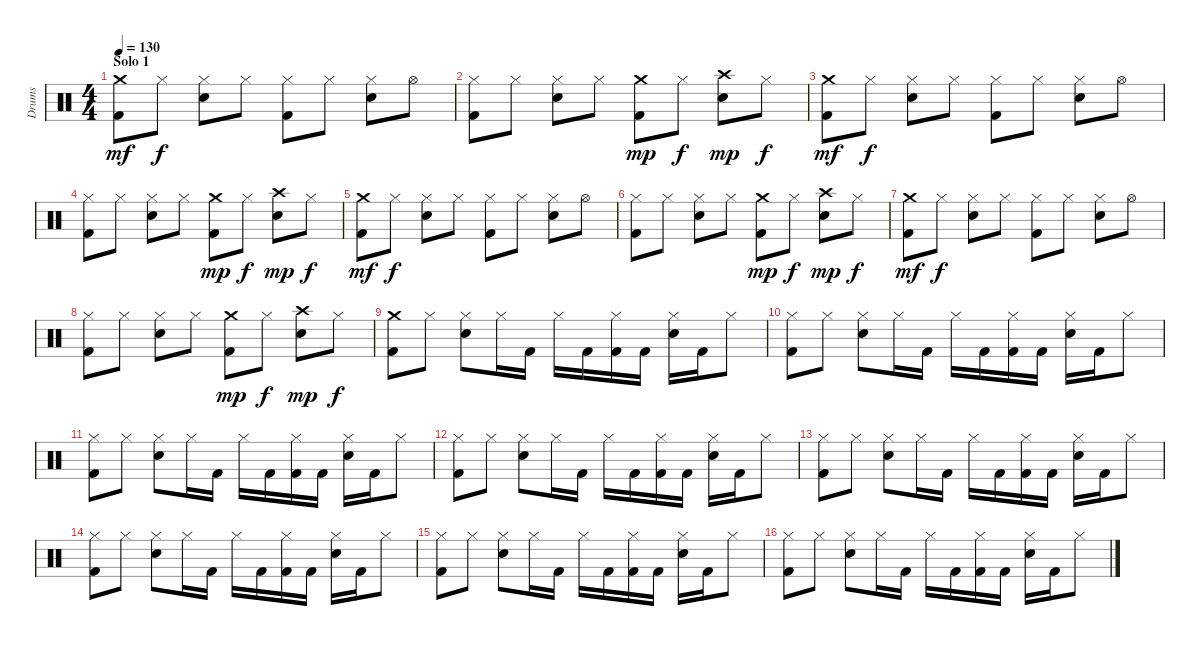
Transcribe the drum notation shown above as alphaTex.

\track ("Drums" "Drums") {instrument percussion}
\staff {score}
\articulation defaults
\ts (4 4)
\section ("" "Solo 1")
\tempo 130
\clef neutral
\ks c
("Crash medium (hit)" "Kick (hit) 2").8{dy mf} "Hi-Hat (closed)".8{dy f} ("Hi-Hat (closed)" "Snare (hit) 2").8 "Hi-Hat (closed)".8 ("Hi-Hat (closed)" "Kick (hit) 2").8 "Hi-Hat (closed)".8 ("Hi-Hat (closed)" "Snare (hit) 2").8 "Hi-Hat (open)".8 |
("Hi-Hat (closed)" "Kick (hit) 2").8 "Hi-Hat (closed)".8 ("Hi-Hat (closed)" "Snare (hit) 2").8 "Hi-Hat (closed)".8 ("Crash medium (hit)" "Kick (hit) 2").8{dy mp} "Hi-Hat (closed)".8{dy f} ("Crash high (hit)" "Snare (hit) 2").8{dy mp} "Hi-Hat (closed)".8{dy f} |
("Crash medium (hit)" "Kick (hit) 2").8{dy mf} "Hi-Hat (closed)".8{dy f} ("Hi-Hat (closed)" "Snare (hit) 2").8 "Hi-Hat (closed)".8 ("Hi-Hat (closed)" "Kick (hit) 2").8 "Hi-Hat (closed)".8 ("Hi-Hat (closed)" "Snare (hit) 2").8 "Hi-Hat (open)".8 |
("Hi-Hat (closed)" "Kick (hit) 2").8 "Hi-Hat (closed)".8 ("Hi-Hat (closed)" "Snare (hit) 2").8 "Hi-Hat (closed)".8 ("Crash medium (hit)" "Kick (hit) 2").8{dy mp} "Hi-Hat (closed)".8{dy f} ("Crash high (hit)" "Snare (hit) 2").8{dy mp} "Hi-Hat (closed)".8{dy f} |
("Crash medium (hit)" "Kick (hit) 2").8{dy mf} "Hi-Hat (closed)".8{dy f} ("Hi-Hat (closed)" "Snare (hit) 2").8 "Hi-Hat (closed)".8 ("Hi-Hat (closed)" "Kick (hit) 2").8 "Hi-Hat (closed)".8 ("Hi-Hat (closed)" "Snare (hit) 2").8 "Hi-Hat (open)".8 |
("Hi-Hat (closed)" "Kick (hit) 2").8 "Hi-Hat (closed)".8 ("Hi-Hat (closed)" "Snare (hit) 2").8 "Hi-Hat (closed)".8 ("Crash medium (hit)" "Kick (hit) 2").8{dy mp} "Hi-Hat (closed)".8{dy f} ("Crash high (hit)" "Snare (hit) 2").8{dy mp} "Hi-Hat (closed)".8{dy f} |
("Crash medium (hit)" "Kick (hit) 2").8{dy mf} "Hi-Hat (closed)".8{dy f} ("Hi-Hat (closed)" "Snare (hit) 2").8 "Hi-Hat (closed)".8 ("Hi-Hat (closed)" "Kick (hit) 2").8 "Hi-Hat (closed)".8 ("Hi-Hat (closed)" "Snare (hit) 2").8 "Hi-Hat (open)".8 |
("Hi-Hat (closed)" "Kick (hit) 2").8 "Hi-Hat (closed)".8 ("Hi-Hat (closed)" "Snare (hit) 2").8 "Hi-Hat (closed)".8 ("Crash medium (hit)" "Kick (hit) 2").8{dy mp} "Hi-Hat (closed)".8{dy f} ("Crash high (hit)" "Snare (hit) 2").8{dy mp} "Hi-Hat (closed)".8{dy f} |
("Crash medium (hit)" "Kick (hit) 2").8 "Hi-Hat (closed)".8 ("Hi-Hat (closed)" "Snare (hit) 2").8 "Hi-Hat (closed)".16 "Kick (hit) 2".16 "Hi-Hat (closed)".16 "Kick (hit) 2".16 ("Hi-Hat (closed)" "Kick (hit) 2").16 "Kick (hit) 2".16 ("Hi-Hat (closed)" "Snare (hit) 2").16 "Kick (hit) 2".16 "Hi-Hat (closed)".8 |
("Hi-Hat (closed)" "Kick (hit) 2").8 "Hi-Hat (closed)".8 ("Hi-Hat (closed)" "Snare (hit) 2").8 "Hi-Hat (closed)".16 "Kick (hit) 2".16 "Hi-Hat (closed)".16 "Kick (hit) 2".16 ("Hi-Hat (closed)" "Kick (hit) 2").16 "Kick (hit) 2".16 ("Hi-Hat (closed)" "Snare (hit) 2").16 "Kick (hit) 2".16 "Hi-Hat (closed)".8 |
("Hi-Hat (closed)" "Kick (hit) 2").8 "Hi-Hat (closed)".8 ("Hi-Hat (closed)" "Snare (hit) 2").8 "Hi-Hat (closed)".16 "Kick (hit) 2".16 "Hi-Hat (closed)".16 "Kick (hit) 2".16 ("Hi-Hat (closed)" "Kick (hit) 2").16 "Kick (hit) 2".16 ("Hi-Hat (closed)" "Snare (hit) 2").16 "Kick (hit) 2".16 "Hi-Hat (closed)".8 |
("Hi-Hat (closed)" "Kick (hit) 2").8 "Hi-Hat (closed)".8 ("Hi-Hat (closed)" "Snare (hit) 2").8 "Hi-Hat (closed)".16 "Kick (hit) 2".16 "Hi-Hat (closed)".16 "Kick (hit) 2".16 ("Hi-Hat (closed)" "Kick (hit) 2").16 "Kick (hit) 2".16 ("Hi-Hat (closed)" "Snare (hit) 2").16 "Kick (hit) 2".16 "Hi-Hat (closed)".8 |
("Hi-Hat (closed)" "Kick (hit) 2").8 "Hi-Hat (closed)".8 ("Hi-Hat (closed)" "Snare (hit) 2").8 "Hi-Hat (closed)".16 "Kick (hit) 2".16 "Hi-Hat (closed)".16 "Kick (hit) 2".16 ("Hi-Hat (closed)" "Kick (hit) 2").16 "Kick (hit) 2".16 ("Hi-Hat (closed)" "Snare (hit) 2").16 "Kick (hit) 2".16 "Hi-Hat (closed)".8 |
("Hi-Hat (closed)" "Kick (hit) 2").8 "Hi-Hat (closed)".8 ("Hi-Hat (closed)" "Snare (hit) 2").8 "Hi-Hat (closed)".16 "Kick (hit) 2".16 "Hi-Hat (closed)".16 "Kick (hit) 2".16 ("Hi-Hat (closed)" "Kick (hit) 2").16 "Kick (hit) 2".16 ("Hi-Hat (closed)" "Snare (hit) 2").16 "Kick (hit) 2".16 "Hi-Hat (closed)".8 |
("Hi-Hat (closed)" "Kick (hit) 2").8 "Hi-Hat (closed)".8 ("Hi-Hat (closed)" "Snare (hit) 2").8 "Hi-Hat (closed)".16 "Kick (hit) 2".16 "Hi-Hat (closed)".16 "Kick (hit) 2".16 ("Hi-Hat (closed)" "Kick (hit) 2").16 "Kick (hit) 2".16 ("Hi-Hat (closed)" "Snare (hit) 2").16 "Kick (hit) 2".16 "Hi-Hat (closed)".8 |
("Hi-Hat (closed)" "Kick (hit) 2").8 "Hi-Hat (closed)".8 ("Hi-Hat (closed)" "Snare (hit) 2").8 "Hi-Hat (closed)".16 "Kick (hit) 2".16 "Hi-Hat (closed)".16 "Kick (hit) 2".16 ("Hi-Hat (closed)" "Kick (hit) 2").16 "Kick (hit) 2".16 ("Hi-Hat (closed)" "Snare (hit) 2").16 "Kick (hit) 2".16 "Hi-Hat (closed)".8
